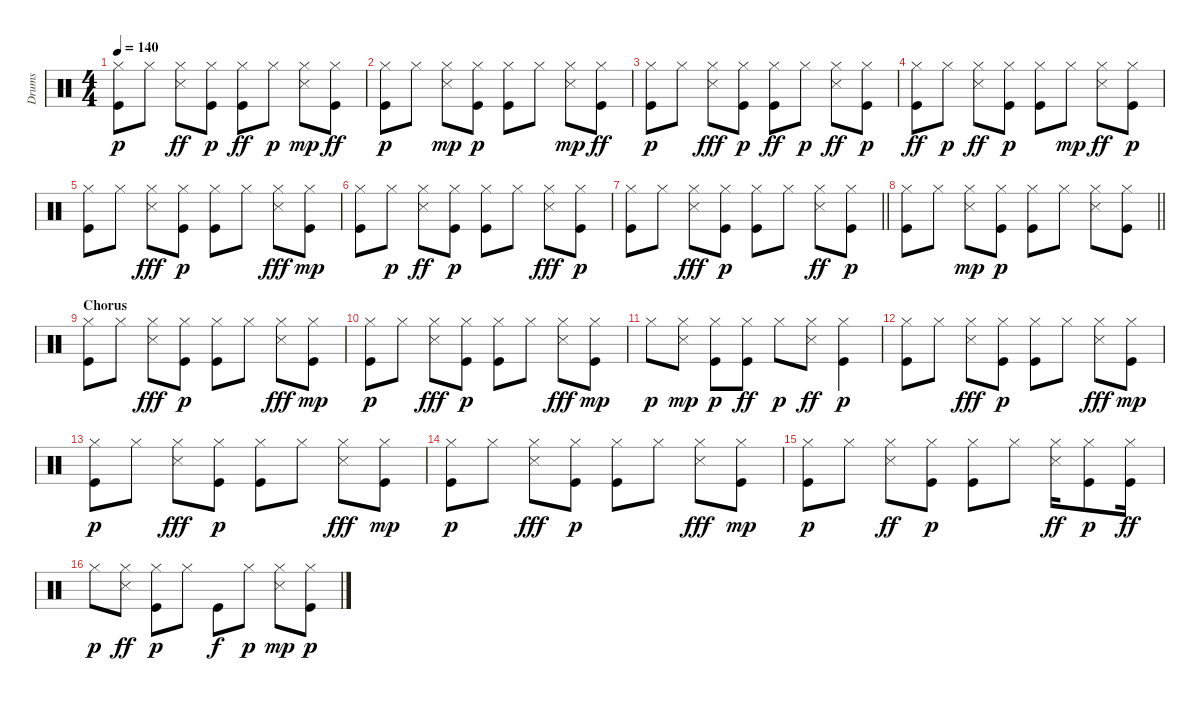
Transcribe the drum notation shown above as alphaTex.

\track ("Drums" "Drums") {instrument percussion}
\staff {score}
\articulation defaults
\ts (4 4)
\tempo 140
\clef neutral
\ks c
("Hi-Hat (closed)" "Kick (hit)").8{dy p} "Hi-Hat (closed)".8 ("Hi-Hat (closed)" "Snare (side stick) 3").8{dy ff} ("Hi-Hat (closed)" "Kick (hit)").8{dy p} ("Hi-Hat (closed)" "Kick (hit)").8{dy ff} "Hi-Hat (closed)".8{dy p} ("Snare (side stick) 3" "Hi-Hat (closed)").8{dy mp} ("Hi-Hat (closed)" "Kick (hit)").8{dy ff} |
("Kick (hit)" "Hi-Hat (closed)").8{dy p} "Hi-Hat (closed)".8 ("Snare (side stick) 3" "Hi-Hat (closed)").8{dy mp} ("Kick (hit)" "Hi-Hat (closed)").8{dy p} ("Kick (hit)" "Hi-Hat (closed)").8 "Hi-Hat (closed)".8 ("Snare (side stick) 3" "Hi-Hat (closed)").8{dy mp} ("Hi-Hat (closed)" "Kick (hit)").8{dy ff} |
("Kick (hit)" "Hi-Hat (closed)").8{dy p} "Hi-Hat (closed)".8 ("Hi-Hat (closed)" "Snare (side stick) 3").8{dy fff} ("Hi-Hat (closed)" "Kick (hit)").8{dy p} ("Hi-Hat (closed)" "Kick (hit)").8{dy ff} "Hi-Hat (closed)".8{dy p} ("Hi-Hat (closed)" "Snare (side stick) 3").8{dy ff} ("Hi-Hat (closed)" "Kick (hit)").8{dy p} |
("Hi-Hat (closed)" "Kick (hit)").8{dy ff} "Hi-Hat (closed)".8{dy p} ("Hi-Hat (closed)" "Snare (side stick) 3").8{dy ff} ("Hi-Hat (closed)" "Kick (hit)").8{dy p} ("Hi-Hat (closed)" "Kick (hit)").8 "Hi-Hat (closed)".8{dy mp} ("Hi-Hat (closed)" "Snare (side stick) 3").8{dy ff} ("Hi-Hat (closed)" "Kick (hit)").8{dy p} |
("Kick (hit)" "Hi-Hat (closed)").8 "Hi-Hat (closed)".8 ("Hi-Hat (closed)" "Snare (side stick) 3").8{dy fff} ("Kick (hit)" "Hi-Hat (closed)").8{dy p} ("Kick (hit)" "Hi-Hat (closed)").8 "Hi-Hat (closed)".8 ("Hi-Hat (closed)" "Snare (side stick) 3").8{dy fff} ("Hi-Hat (closed)" "Kick (hit)").8{dy mp} |
("Kick (hit)" "Hi-Hat (closed)").8 "Hi-Hat (closed)".8{dy p} ("Hi-Hat (closed)" "Snare (side stick) 3").8{dy ff} ("Hi-Hat (closed)" "Kick (hit)").8{dy p} ("Hi-Hat (closed)" "Kick (hit)").8 "Hi-Hat (closed)".8 ("Hi-Hat (closed)" "Snare (side stick) 3").8{dy fff} ("Hi-Hat (closed)" "Kick (hit)").8{dy p} |
\barLineRight lightlight
("Hi-Hat (closed)" "Kick (hit)").8 "Hi-Hat (closed)".8 ("Hi-Hat (closed)" "Snare (side stick) 3").8{dy fff} ("Kick (hit)" "Hi-Hat (closed)").8{dy p} ("Kick (hit)" "Hi-Hat (closed)").8 "Hi-Hat (closed)".8 ("Hi-Hat (closed)" "Snare (side stick) 3").8{dy ff} ("Hi-Hat (closed)" "Kick (hit)").8{dy p} |
\section ("" "")
\barLineRight lightlight
("Hi-Hat (closed)" "Kick (hit)").8 "Hi-Hat (closed)".8 ("Snare (side stick) 3" "Hi-Hat (closed)").8{dy mp} ("Hi-Hat (closed)" "Kick (hit)").8{dy p} ("Kick (hit)" "Hi-Hat (closed)").8 "Hi-Hat (closed)".8 ("Snare (side stick) 3" "Hi-Hat (closed)").8 ("Hi-Hat (closed)" "Kick (hit)").8 |
\section ("" "Chorus")
("Kick (hit)" "Hi-Hat (closed)").8 "Hi-Hat (closed)".8 ("Hi-Hat (closed)" "Snare (side stick) 3").8{dy fff} ("Kick (hit)" "Hi-Hat (closed)").8{dy p} ("Kick (hit)" "Hi-Hat (closed)").8 "Hi-Hat (closed)".8 ("Hi-Hat (closed)" "Snare (side stick) 3").8{dy fff} ("Hi-Hat (closed)" "Kick (hit)").8{dy mp} |
("Kick (hit)" "Hi-Hat (closed)").8{dy p} "Hi-Hat (closed)".8 ("Hi-Hat (closed)" "Snare (side stick) 3").8{dy fff} ("Kick (hit)" "Hi-Hat (closed)").8{dy p} ("Kick (hit)" "Hi-Hat (closed)").8 "Hi-Hat (closed)".8 ("Hi-Hat (closed)" "Snare (side stick) 3").8{dy fff} ("Hi-Hat (closed)" "Kick (hit)").8{dy mp} |
"Hi-Hat (closed)".8{dy p} ("Snare (side stick) 3" "Hi-Hat (closed)").8{dy mp} ("Kick (hit)" "Hi-Hat (closed)").8{dy p} ("Hi-Hat (closed)" "Kick (hit)").8{dy ff} "Hi-Hat (closed)".8{dy p} ("Hi-Hat (closed)" "Snare (side stick) 3").8{dy ff} ("Hi-Hat (closed)" "Kick (hit)").4{dy p} |
("Kick (hit)" "Hi-Hat (closed)").8 "Hi-Hat (closed)".8 ("Hi-Hat (closed)" "Snare (side stick) 3").8{dy fff} ("Kick (hit)" "Hi-Hat (closed)").8{dy p} ("Kick (hit)" "Hi-Hat (closed)").8 "Hi-Hat (closed)".8 ("Hi-Hat (closed)" "Snare (side stick) 3").8{dy fff} ("Hi-Hat (closed)" "Kick (hit)").8{dy mp} |
("Kick (hit)" "Hi-Hat (closed)").8{dy p} "Hi-Hat (closed)".8 ("Hi-Hat (closed)" "Snare (side stick) 3").8{dy fff} ("Kick (hit)" "Hi-Hat (closed)").8{dy p} ("Kick (hit)" "Hi-Hat (closed)").8 "Hi-Hat (closed)".8 ("Hi-Hat (closed)" "Snare (side stick) 3").8{dy fff} ("Hi-Hat (closed)" "Kick (hit)").8{dy mp} |
("Kick (hit)" "Hi-Hat (closed)").8{dy p} "Hi-Hat (closed)".8 ("Hi-Hat (closed)" "Snare (side stick) 3").8{dy fff} ("Kick (hit)" "Hi-Hat (closed)").8{dy p} ("Kick (hit)" "Hi-Hat (closed)").8 "Hi-Hat (closed)".8 ("Hi-Hat (closed)" "Snare (side stick) 3").8{dy fff} ("Hi-Hat (closed)" "Kick (hit)").8{dy mp} |
("Kick (hit)" "Hi-Hat (closed)").8{dy p} "Hi-Hat (closed)".8 ("Hi-Hat (closed)" "Snare (side stick) 3").8{dy ff} ("Kick (hit)" "Hi-Hat (closed)").8{dy p} ("Hi-Hat (closed)" "Kick (hit)").8 "Hi-Hat (closed)".8 ("Hi-Hat (closed)" "Snare (side stick) 3").16{dy ff} ("Hi-Hat (closed)" "Kick (hit)").8{dy p} ("Hi-Hat (closed)" "Kick (hit)").16{dy ff} |
"Hi-Hat (closed)".8{dy p} ("Hi-Hat (closed)" "Snare (side stick) 3").8{dy ff} ("Hi-Hat (closed)" "Kick (hit)").8{dy p} "Hi-Hat (closed)".8 "Kick (hit)".8{dy f} "Hi-Hat (closed)".8{dy p} ("Snare (side stick) 3" "Hi-Hat (closed)").8{dy mp} ("Hi-Hat (closed)" "Kick (hit)").8{dy p}
